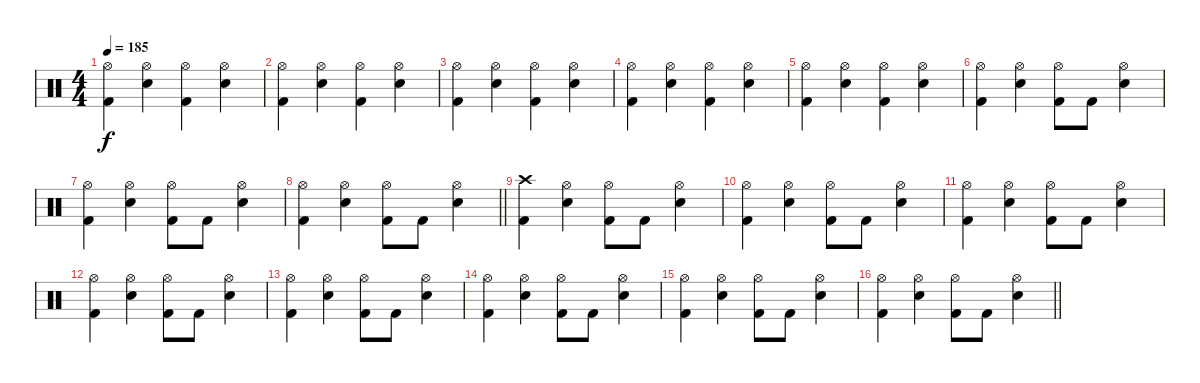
\track "" {instrument percussion}
\staff {score}
\articulation defaults
\ts (4 4)
\tempo 185
\clef neutral
\ks c
("Kick (hit) 2" "Hi-Hat (open)").4{dy f} ("Snare (hit) 2" "Hi-Hat (open)").4 ("Kick (hit) 2" "Hi-Hat (open)").4 ("Snare (hit) 2" "Hi-Hat (open)").4 |
("Kick (hit) 2" "Hi-Hat (open)").4 ("Snare (hit) 2" "Hi-Hat (open)").4 ("Kick (hit) 2" "Hi-Hat (open)").4 ("Snare (hit) 2" "Hi-Hat (open)").4 |
("Kick (hit) 2" "Hi-Hat (open)").4 ("Snare (hit) 2" "Hi-Hat (open)").4 ("Kick (hit) 2" "Hi-Hat (open)").4 ("Snare (hit) 2" "Hi-Hat (open)").4 |
("Kick (hit) 2" "Hi-Hat (open)").4 ("Snare (hit) 2" "Hi-Hat (open)").4 ("Kick (hit) 2" "Hi-Hat (open)").4 ("Snare (hit) 2" "Hi-Hat (open)").4 |
("Kick (hit) 2" "Hi-Hat (open)").4 ("Snare (hit) 2" "Hi-Hat (open)").4 ("Kick (hit) 2" "Hi-Hat (open)").4 ("Snare (hit) 2" "Hi-Hat (open)").4 |
("Kick (hit) 2" "Hi-Hat (open)").4 ("Snare (hit) 2" "Hi-Hat (open)").4 ("Kick (hit) 2" "Hi-Hat (open)").8 "Kick (hit) 2".8 ("Snare (hit) 2" "Hi-Hat (open)").4 |
("Kick (hit) 2" "Hi-Hat (open)").4 ("Snare (hit) 2" "Hi-Hat (open)").4 ("Kick (hit) 2" "Hi-Hat (open)").8 "Kick (hit) 2".8 ("Snare (hit) 2" "Hi-Hat (open)").4 |
\barLineRight lightlight
("Kick (hit) 2" "Hi-Hat (open)").4 ("Snare (hit) 2" "Hi-Hat (open)").4 ("Kick (hit) 2" "Hi-Hat (open)").8 "Kick (hit) 2".8 ("Snare (hit) 2" "Hi-Hat (open)").4 |
("Kick (hit) 2" "Crash high (hit)").4 ("Snare (hit) 2" "Hi-Hat (open)").4 ("Kick (hit) 2" "Hi-Hat (open)").8 "Kick (hit) 2".8 ("Snare (hit) 2" "Hi-Hat (open)").4 |
("Kick (hit) 2" "Hi-Hat (open)").4 ("Snare (hit) 2" "Hi-Hat (open)").4 ("Kick (hit) 2" "Hi-Hat (open)").8 "Kick (hit) 2".8 ("Snare (hit) 2" "Hi-Hat (open)").4 |
("Kick (hit) 2" "Hi-Hat (open)").4 ("Snare (hit) 2" "Hi-Hat (open)").4 ("Kick (hit) 2" "Hi-Hat (open)").8 "Kick (hit) 2".8 ("Snare (hit) 2" "Hi-Hat (open)").4 |
("Kick (hit) 2" "Hi-Hat (open)").4 ("Snare (hit) 2" "Hi-Hat (open)").4 ("Kick (hit) 2" "Hi-Hat (open)").8 "Kick (hit) 2".8 ("Snare (hit) 2" "Hi-Hat (open)").4 |
("Kick (hit) 2" "Hi-Hat (open)").4 ("Snare (hit) 2" "Hi-Hat (open)").4 ("Kick (hit) 2" "Hi-Hat (open)").8 "Kick (hit) 2".8 ("Snare (hit) 2" "Hi-Hat (open)").4 |
("Kick (hit) 2" "Hi-Hat (open)").4 ("Snare (hit) 2" "Hi-Hat (open)").4 ("Kick (hit) 2" "Hi-Hat (open)").8 "Kick (hit) 2".8 ("Snare (hit) 2" "Hi-Hat (open)").4 |
("Kick (hit) 2" "Hi-Hat (open)").4 ("Snare (hit) 2" "Hi-Hat (open)").4 ("Kick (hit) 2" "Hi-Hat (open)").8 "Kick (hit) 2".8 ("Snare (hit) 2" "Hi-Hat (open)").4 |
\barLineRight lightlight
("Kick (hit) 2" "Hi-Hat (open)").4 ("Snare (hit) 2" "Hi-Hat (open)").4 ("Kick (hit) 2" "Hi-Hat (open)").8 "Kick (hit) 2".8 ("Snare (hit) 2" "Hi-Hat (open)").4
